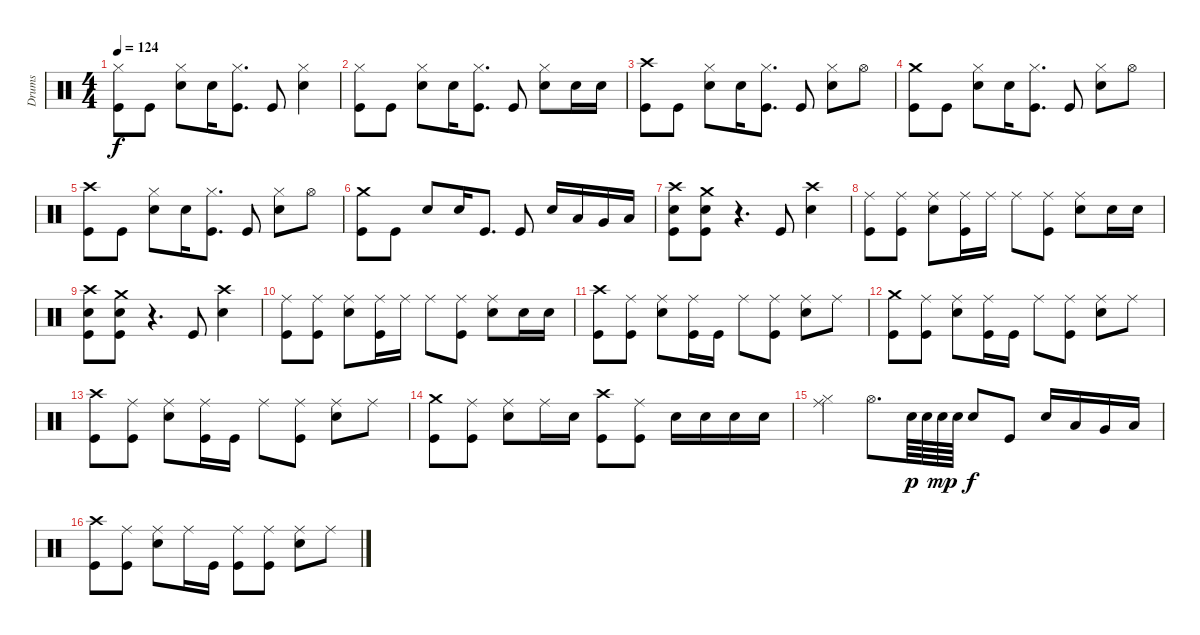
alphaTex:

\track ("Drums" "Drums") {instrument percussion}
\staff {score}
\articulation defaults
\ts (4 4)
\tempo 124
\clef neutral
\ks c
("Hi-Hat (closed)" "Kick (hit)").8{dy f} "Kick (hit)".8 ("Hi-Hat (closed)" "Electric Snare (hit)").8 "Electric Snare (hit)".16 ("Hi-Hat (closed)" "Kick (hit)").8{d} "Kick (hit)".8 ("Hi-Hat (closed)" "Electric Snare (hit)").4 |
("Hi-Hat (closed)" "Kick (hit)").8 "Kick (hit)".8 ("Hi-Hat (closed)" "Electric Snare (hit)").8 "Electric Snare (hit)".16 ("Hi-Hat (closed)" "Kick (hit)").8{d} "Kick (hit)".8 ("Hi-Hat (closed)" "Electric Snare (hit)").8 "Electric Snare (hit)".16 "Electric Snare (hit)".16 |
("Crash high (hit)" "Kick (hit)").8 "Kick (hit)".8 ("Hi-Hat (closed)" "Electric Snare (hit)").8 "Electric Snare (hit)".16 ("Hi-Hat (closed)" "Kick (hit)").8{d} "Kick (hit)".8 ("Hi-Hat (closed)" "Electric Snare (hit)").8 "Hi-Hat (open)".8 |
("Crash medium (hit)" "Kick (hit)").8 "Kick (hit)".8 ("Hi-Hat (closed)" "Electric Snare (hit)").8 "Electric Snare (hit)".16 ("Hi-Hat (closed)" "Kick (hit)").8{d} "Kick (hit)".8 ("Hi-Hat (closed)" "Electric Snare (hit)").8 "Hi-Hat (open)".8 |
("Crash high (hit)" "Kick (hit)").8 "Kick (hit)".8 ("Hi-Hat (closed)" "Electric Snare (hit)").8 "Electric Snare (hit)".16 ("Hi-Hat (closed)" "Kick (hit)").8{d} "Kick (hit)".8 ("Hi-Hat (closed)" "Electric Snare (hit)").8 "Hi-Hat (open)".8 |
("Crash medium (hit)" "Kick (hit)").8 "Kick (hit)".8 "Electric Snare (hit)".8 "Electric Snare (hit)".16 "Kick (hit)".8{d} "Kick (hit)".8 "Electric Snare (hit)".16 "Low Tom (hit)".16 "Very Low Tom (hit)".16 "Low Floor Tom (hit)".16 |
("Crash high (hit)" "Electric Snare (hit)" "Kick (hit)").8 ("Crash medium (hit)" "Electric Snare (hit)" "Kick (hit)").8 r.4{d} "Kick (hit)".8 ("Crash high (hit)" "Electric Snare (hit)").4 |
("Ride (middle)" "Kick (hit)").8 ("Ride (middle)" "Kick (hit)").8 ("Ride (middle)" "Electric Snare (hit)").8 ("Ride (middle)" "Kick (hit)").16 "Ride (middle)".16 "Ride (middle)".8 ("Ride (middle)" "Kick (hit)").8 ("Ride (middle)" "Electric Snare (hit)").8 "Electric Snare (hit)".16 "Electric Snare (hit)".16 |
("Crash high (hit)" "Electric Snare (hit)" "Kick (hit)").8 ("Crash medium (hit)" "Electric Snare (hit)" "Kick (hit)").8 r.4{d} "Kick (hit)".8 ("Crash high (hit)" "Electric Snare (hit)").4 |
("Ride (middle)" "Kick (hit)").8 ("Ride (middle)" "Kick (hit)").8 ("Ride (middle)" "Electric Snare (hit)").8 ("Ride (middle)" "Kick (hit)").16 "Ride (middle)".16 "Ride (middle)".8 ("Ride (middle)" "Kick (hit)").8 ("Ride (middle)" "Electric Snare (hit)").8 "Electric Snare (hit)".16 "Electric Snare (hit)".16 |
("Crash high (hit)" "Kick (hit)").8 ("Ride (middle)" "Kick (hit)").8 ("Ride (middle)" "Electric Snare (hit)").8 ("Ride (middle)" "Kick (hit)").16 "Kick (hit)".16 "Ride (middle)".8 ("Ride (middle)" "Kick (hit)").8 ("Ride (middle)" "Electric Snare (hit)").8 "Ride (middle)".8 |
("Crash medium (hit)" "Kick (hit)").8 ("Ride (middle)" "Kick (hit)").8 ("Ride (middle)" "Electric Snare (hit)").8 ("Ride (middle)" "Kick (hit)").16 "Kick (hit)".16 "Ride (middle)".8 ("Ride (middle)" "Kick (hit)").8 ("Ride (middle)" "Electric Snare (hit)").8 "Ride (middle)".8 |
("Crash high (hit)" "Kick (hit)").8 ("Ride (middle)" "Kick (hit)").8 ("Ride (middle)" "Electric Snare (hit)").8 ("Ride (middle)" "Kick (hit)").16 "Kick (hit)".16 "Ride (middle)".8 ("Ride (middle)" "Kick (hit)").8 ("Ride (middle)" "Electric Snare (hit)").8 "Ride (middle)".8 |
("Crash medium (hit)" "Kick (hit)").8 ("Ride (middle)" "Kick (hit)").8 ("Ride (middle)" "Electric Snare (hit)").8 "Ride (middle)".16 "Electric Snare (hit)".16 ("Crash high (hit)" "Kick (hit)").8 ("Ride (middle)" "Kick (hit)").8 "Electric Snare (hit)".16 "Electric Snare (hit)".16 "Electric Snare (hit)".16 "Electric Snare (hit)".16 |
("Ride (middle)" "Hi-Hat (closed)").4 "Hi-Hat (open)".8{d} "Snare (hit) 2".64{dy p} "Snare (hit) 2".64 "Snare (hit) 2".64{dy mp} "Snare (hit) 2".64 "Electric Snare (hit)".8{dy f} "Kick (hit)".8 "Electric Snare (hit)".16 "Low Tom (hit)".16 "Very Low Tom (hit)".16 "Low Floor Tom (hit)".16 |
("Crash high (hit)" "Kick (hit)").8 ("Ride (middle)" "Kick (hit)").8 ("Ride (middle)" "Electric Snare (hit)").8 "Ride (middle)".16 "Kick (hit)".16 ("Ride (middle)" "Kick (hit)").8 ("Ride (middle)" "Kick (hit)").8 ("Ride (middle)" "Electric Snare (hit)").8 "Ride (middle)".8
